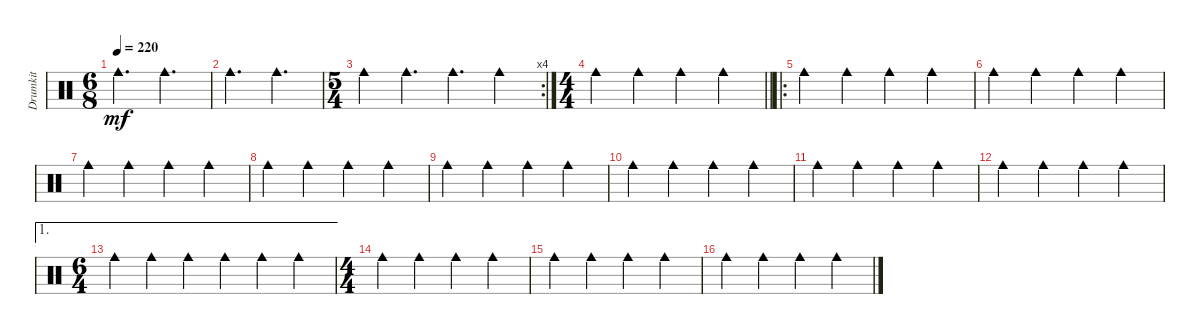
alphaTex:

\track ("Drumkit" "Drumkit") {instrument percussion}
\staff {score}
\articulation defaults
\ts (6 8)
\tempo 220
\clef neutral
\ks c "Cowbell medium (hit)".4{d dy mf} "Cowbell medium (hit)".4{d}
|
"Cowbell medium (hit)".4{d} "Cowbell medium (hit)".4{d} |
\rc 4
\ts (5 4)
"Cowbell medium (hit)".4 "Cowbell medium (hit)".4{d} "Cowbell medium (hit)".4{d} "Cowbell medium (hit)".4 |
\ts (4 4)
\barLineRight lightlight "Cowbell medium (hit)".4 "Cowbell medium (hit)".4 "Cowbell medium (hit)".4 "Cowbell medium (hit)".4
|
\ro
\section ("" "")
"Cowbell medium (hit)".4 "Cowbell medium (hit)".4 "Cowbell medium (hit)".4 "Cowbell medium (hit)".4 |
"Cowbell medium (hit)".4 "Cowbell medium (hit)".4 "Cowbell medium (hit)".4 "Cowbell medium (hit)".4 |
"Cowbell medium (hit)".4 "Cowbell medium (hit)".4 "Cowbell medium (hit)".4 "Cowbell medium (hit)".4 |
"Cowbell medium (hit)".4 "Cowbell medium (hit)".4 "Cowbell medium (hit)".4 "Cowbell medium (hit)".4 |
"Cowbell medium (hit)".4 "Cowbell medium (hit)".4 "Cowbell medium (hit)".4 "Cowbell medium (hit)".4 |
"Cowbell medium (hit)".4 "Cowbell medium (hit)".4 "Cowbell medium (hit)".4 "Cowbell medium (hit)".4 |
"Cowbell medium (hit)".4 "Cowbell medium (hit)".4 "Cowbell medium (hit)".4 "Cowbell medium (hit)".4 |
"Cowbell medium (hit)".4 "Cowbell medium (hit)".4 "Cowbell medium (hit)".4 "Cowbell medium (hit)".4 |
\ae 1
\ts (6 4)
"Cowbell medium (hit)".4 "Cowbell medium (hit)".4 "Cowbell medium (hit)".4 "Cowbell medium (hit)".4 "Cowbell medium (hit)".4 "Cowbell medium (hit)".4 |
\ts (4 4)
"Cowbell medium (hit)".4 "Cowbell medium (hit)".4 "Cowbell medium (hit)".4 "Cowbell medium (hit)".4 |
"Cowbell medium (hit)".4 "Cowbell medium (hit)".4 "Cowbell medium (hit)".4 "Cowbell medium (hit)".4 |
"Cowbell medium (hit)".4 "Cowbell medium (hit)".4 "Cowbell medium (hit)".4 "Cowbell medium (hit)".4
